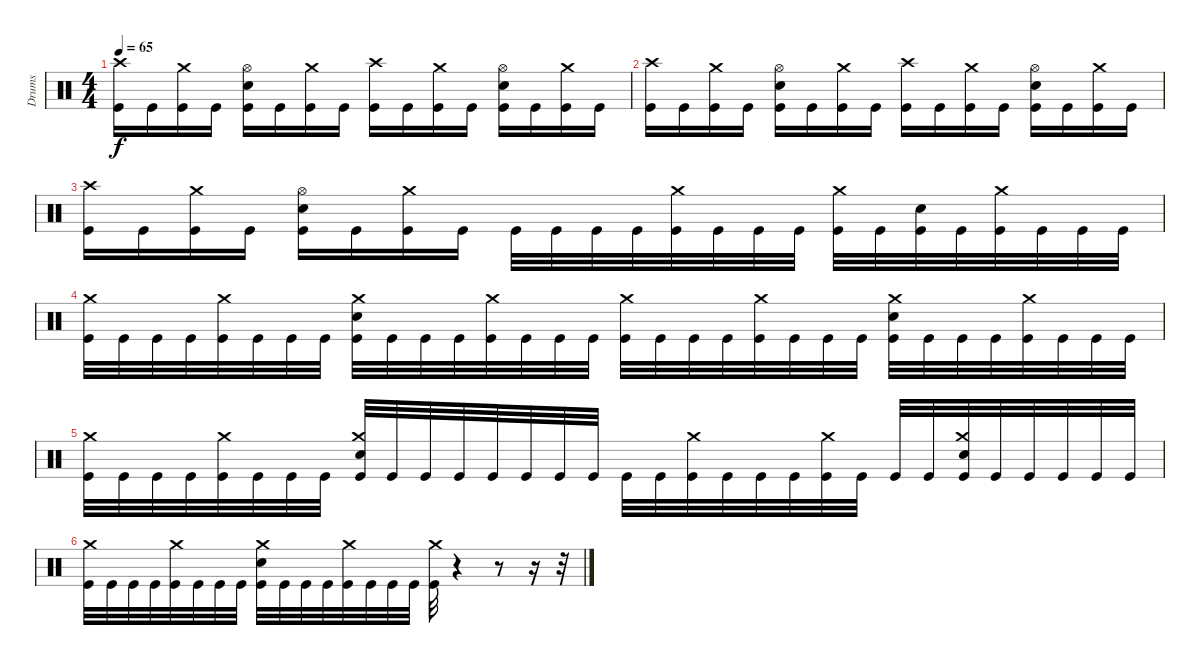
\track ("Drums" "Drums") {instrument percussion}
\staff {score}
\articulation defaults
\ts (4 4)
\tempo 65
\clef neutral
\ks c
("Crash high (hit)" "Kick (hit)").16{dy f} "Kick (hit)".16 ("Crash medium (hit)" "Kick (hit)").16 "Kick (hit)".16 ("Hi-Hat (open)" "Snare (hit) 2" "Kick (hit)").16 "Kick (hit)".16 ("Crash medium (hit)" "Kick (hit)").16 "Kick (hit)".16 ("Crash high (hit)" "Kick (hit)").16 "Kick (hit)".16 ("Crash medium (hit)" "Kick (hit)").16 "Kick (hit)".16 ("Hi-Hat (open)" "Snare (hit) 2" "Kick (hit)").16 "Kick (hit)".16 ("Crash medium (hit)" "Kick (hit)").16 "Kick (hit)".16 |
("Crash high (hit)" "Kick (hit)").16 "Kick (hit)".16 ("Crash medium (hit)" "Kick (hit)").16 "Kick (hit)".16 ("Hi-Hat (open)" "Snare (hit) 2" "Kick (hit)").16 "Kick (hit)".16 ("Crash medium (hit)" "Kick (hit)").16 "Kick (hit)".16 ("Crash high (hit)" "Kick (hit)").16 "Kick (hit)".16 ("Crash medium (hit)" "Kick (hit)").16 "Kick (hit)".16 ("Hi-Hat (open)" "Snare (hit) 2" "Kick (hit)").16 "Kick (hit)".16 ("Crash medium (hit)" "Kick (hit)").16 "Kick (hit)".16 |
("Crash high (hit)" "Kick (hit)").16 "Kick (hit)".16 ("Crash medium (hit)" "Kick (hit)").16 "Kick (hit)".16 ("Hi-Hat (open)" "Snare (hit) 2" "Kick (hit)").16 "Kick (hit)".16 ("Crash medium (hit)" "Kick (hit)").16 "Kick (hit)".16 "Kick (hit)".32 "Kick (hit)".32 "Kick (hit)".32 "Kick (hit)".32 ("Crash medium (hit)" "Kick (hit)").32 "Kick (hit)".32 "Kick (hit)".32 "Kick (hit)".32 ("Crash medium (hit)" "Kick (hit)").32 "Kick (hit)".32 ("Snare (hit) 2" "Kick (hit)").32 "Kick (hit)".32 ("Crash medium (hit)" "Kick (hit)").32 "Kick (hit)".32 "Kick (hit)".32 "Kick (hit)".32 |
("Crash medium (hit)" "Kick (hit)").32 "Kick (hit)".32 "Kick (hit)".32 "Kick (hit)".32 ("Crash medium (hit)" "Kick (hit)").32 "Kick (hit)".32 "Kick (hit)".32 "Kick (hit)".32 ("Crash medium (hit)" "Snare (hit) 2" "Kick (hit)").32 "Kick (hit)".32 "Kick (hit)".32 "Kick (hit)".32 ("Crash medium (hit)" "Kick (hit)").32 "Kick (hit)".32 "Kick (hit)".32 "Kick (hit)".32 ("Crash medium (hit)" "Kick (hit)").32 "Kick (hit)".32 "Kick (hit)".32 "Kick (hit)".32 ("Crash medium (hit)" "Kick (hit)").32 "Kick (hit)".32 "Kick (hit)".32 "Kick (hit)".32 ("Crash medium (hit)" "Snare (hit) 2" "Kick (hit)").32 "Kick (hit)".32 "Kick (hit)".32 "Kick (hit)".32 ("Crash medium (hit)" "Kick (hit)").32 "Kick (hit)".32 "Kick (hit)".32 "Kick (hit)".32 |
("Crash medium (hit)" "Kick (hit)").32 "Kick (hit)".32 "Kick (hit)".32 "Kick (hit)".32 ("Crash medium (hit)" "Kick (hit)").32 "Kick (hit)".32 "Kick (hit)".32 "Kick (hit)".32 ("Crash medium (hit)" "Snare (hit) 2" "Kick (hit)").32 "Kick (hit)".32 "Kick (hit)".32 "Kick (hit)".32 "Kick (hit)".32 "Kick (hit)".32 "Kick (hit)".32 "Kick (hit)".32 "Kick (hit)".32 "Kick (hit)".32 ("Crash medium (hit)" "Kick (hit)").32 "Kick (hit)".32 "Kick (hit)".32 "Kick (hit)".32 ("Crash medium (hit)" "Kick (hit)").32 "Kick (hit)".32 "Kick (hit)".32 "Kick (hit)".32 ("Crash medium (hit)" "Snare (hit) 2" "Kick (hit)").32 "Kick (hit)".32 "Kick (hit)".32 "Kick (hit)".32 "Kick (hit)".32 "Kick (hit)".32 |
("Crash medium (hit)" "Kick (hit)").32 "Kick (hit)".32 "Kick (hit)".32 "Kick (hit)".32 ("Crash medium (hit)" "Kick (hit)").32 "Kick (hit)".32 "Kick (hit)".32 "Kick (hit)".32 ("Crash medium (hit)" "Snare (hit) 2" "Kick (hit)").32 "Kick (hit)".32 "Kick (hit)".32 "Kick (hit)".32 ("Crash medium (hit)" "Kick (hit)").32 "Kick (hit)".32 "Kick (hit)".32 "Kick (hit)".32 ("Crash medium (hit)" "Kick (hit)").32 r.4 r.8 r.16 r.32
